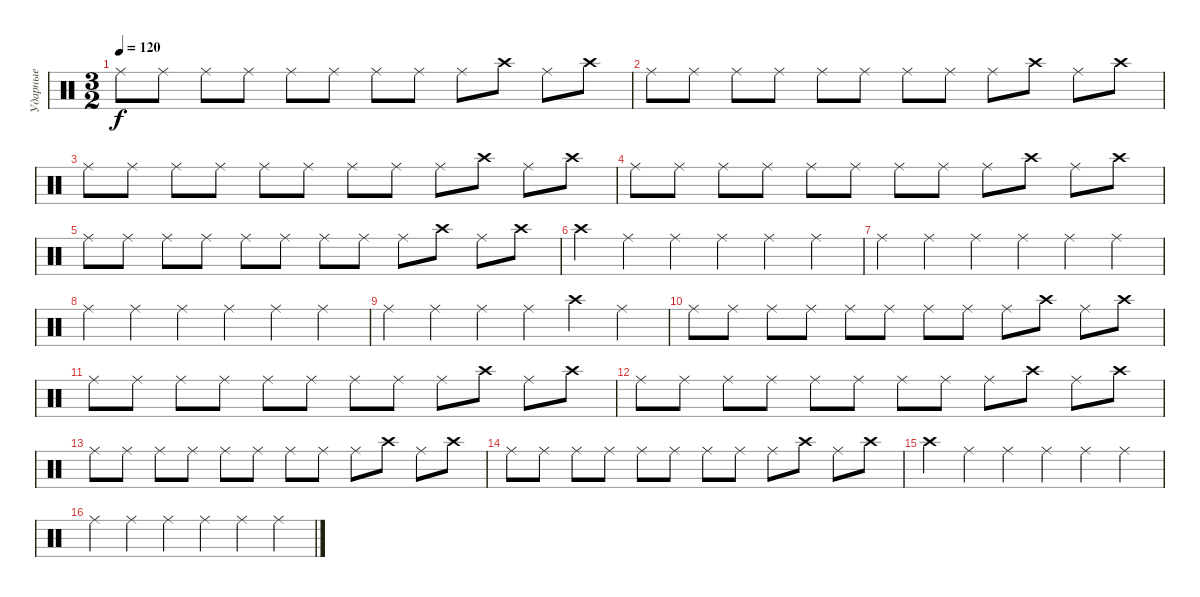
\track ("Ударные" "Ударные") {instrument percussion}
\staff {score}
\articulation defaults
\ts (3 2)
\tempo 120
\clef neutral
\ks c "Ride (middle)".8{dy f} "Ride (middle)".8 "Ride (middle)".8 "Ride (middle)".8 "Ride (middle)".8 "Ride (middle)".8 "Ride (middle)".8 "Ride (middle)".8 "Ride (middle)".8 "Crash high (hit)".8 "Ride (middle)".8 "Crash high (hit)".8
|
"Ride (middle)".8 "Ride (middle)".8 "Ride (middle)".8 "Ride (middle)".8 "Ride (middle)".8 "Ride (middle)".8 "Ride (middle)".8 "Ride (middle)".8 "Ride (middle)".8 "Crash high (hit)".8 "Ride (middle)".8 "Crash high (hit)".8 |
"Ride (middle)".8 "Ride (middle)".8 "Ride (middle)".8 "Ride (middle)".8 "Ride (middle)".8 "Ride (middle)".8 "Ride (middle)".8 "Ride (middle)".8 "Ride (middle)".8 "Crash high (hit)".8 "Ride (middle)".8 "Crash high (hit)".8 |
"Ride (middle)".8 "Ride (middle)".8 "Ride (middle)".8 "Ride (middle)".8 "Ride (middle)".8 "Ride (middle)".8 "Ride (middle)".8 "Ride (middle)".8 "Ride (middle)".8 "Crash high (hit)".8 "Ride (middle)".8 "Crash high (hit)".8 |
"Ride (middle)".8 "Ride (middle)".8 "Ride (middle)".8 "Ride (middle)".8 "Ride (middle)".8 "Ride (middle)".8 "Ride (middle)".8 "Ride (middle)".8 "Ride (middle)".8 "Crash high (hit)".8 "Ride (middle)".8 "Crash high (hit)".8 |
"Crash high (hit)".4 "Ride (middle)".4 "Ride (middle)".4 "Ride (middle)".4 "Ride (middle)".4 "Ride (middle)".4 |
"Ride (middle)".4 "Ride (middle)".4 "Ride (middle)".4 "Ride (middle)".4 "Ride (middle)".4 "Ride (middle)".4 |
"Ride (middle)".4 "Ride (middle)".4 "Ride (middle)".4 "Ride (middle)".4 "Ride (middle)".4 "Ride (middle)".4 |
"Ride (middle)".4 "Ride (middle)".4 "Ride (middle)".4 "Ride (middle)".4 "Crash high (hit)".4 "Ride (middle)".4 |
"Ride (middle)".8 "Ride (middle)".8 "Ride (middle)".8 "Ride (middle)".8 "Ride (middle)".8 "Ride (middle)".8 "Ride (middle)".8 "Ride (middle)".8 "Ride (middle)".8 "Crash high (hit)".8 "Ride (middle)".8 "Crash high (hit)".8 |
"Ride (middle)".8 "Ride (middle)".8 "Ride (middle)".8 "Ride (middle)".8 "Ride (middle)".8 "Ride (middle)".8 "Ride (middle)".8 "Ride (middle)".8 "Ride (middle)".8 "Crash high (hit)".8 "Ride (middle)".8 "Crash high (hit)".8 |
"Ride (middle)".8 "Ride (middle)".8 "Ride (middle)".8 "Ride (middle)".8 "Ride (middle)".8 "Ride (middle)".8 "Ride (middle)".8 "Ride (middle)".8 "Ride (middle)".8 "Crash high (hit)".8 "Ride (middle)".8 "Crash high (hit)".8 |
"Ride (middle)".8 "Ride (middle)".8 "Ride (middle)".8 "Ride (middle)".8 "Ride (middle)".8 "Ride (middle)".8 "Ride (middle)".8 "Ride (middle)".8 "Ride (middle)".8 "Crash high (hit)".8 "Ride (middle)".8 "Crash high (hit)".8 |
"Ride (middle)".8 "Ride (middle)".8 "Ride (middle)".8 "Ride (middle)".8 "Ride (middle)".8 "Ride (middle)".8 "Ride (middle)".8 "Ride (middle)".8 "Ride (middle)".8 "Crash high (hit)".8 "Ride (middle)".8 "Crash high (hit)".8 |
"Crash high (hit)".4 "Ride (middle)".4 "Ride (middle)".4 "Ride (middle)".4 "Ride (middle)".4 "Ride (middle)".4 |
"Ride (middle)".4 "Ride (middle)".4 "Ride (middle)".4 "Ride (middle)".4 "Ride (middle)".4 "Ride (middle)".4
